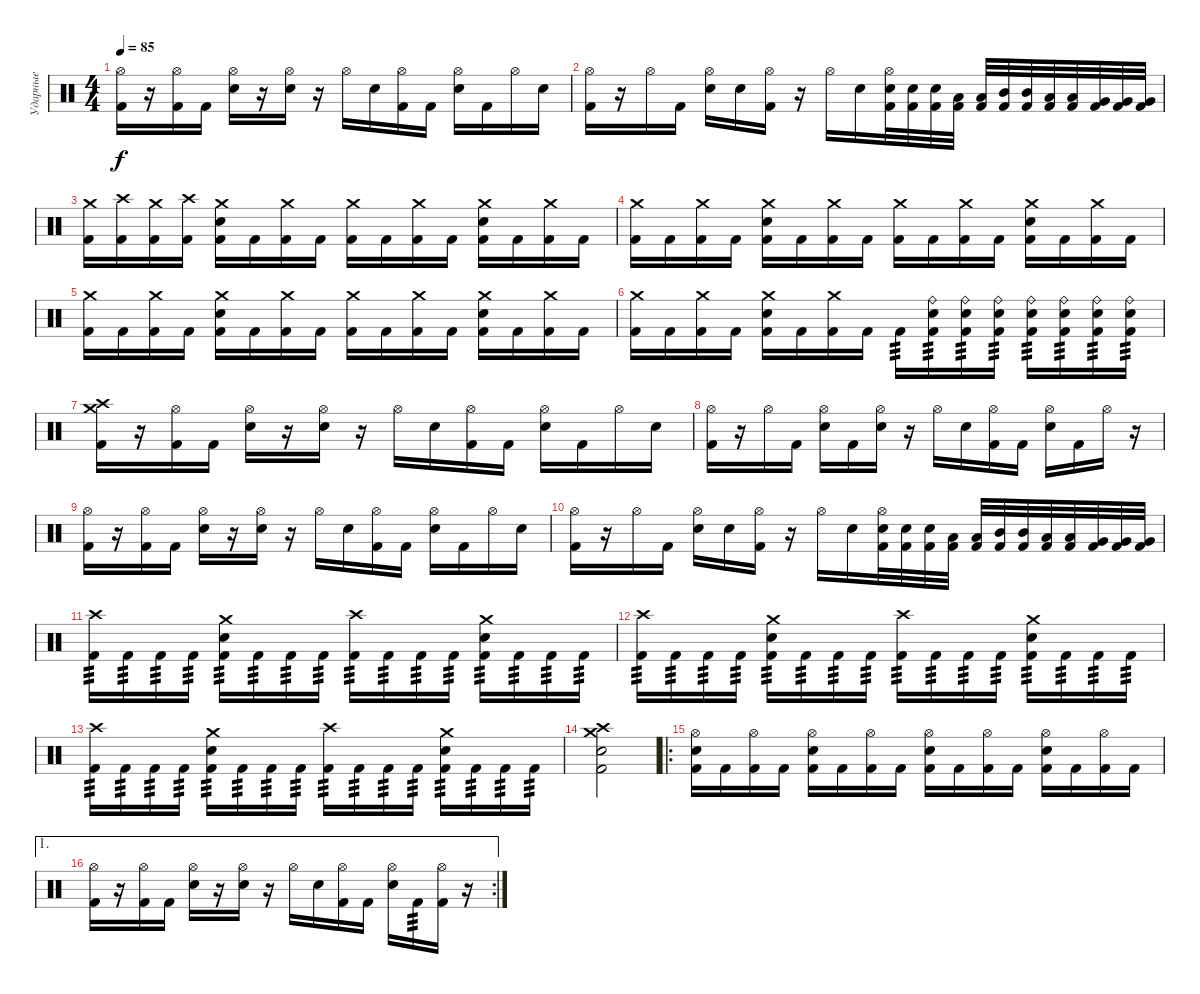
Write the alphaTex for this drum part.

\track ("Ударные" "Ударные") {instrument percussion}
\staff {score}
\articulation defaults
\ts (4 4)
\tempo 85
\clef neutral
\ks c
("Hi-Hat (open)" "Kick (hit) 2").16{dy f} r.16 ("Hi-Hat (open)" "Kick (hit) 2").16 "Kick (hit) 2".16 ("Hi-Hat (open)" "Electric Snare (hit)").16 r.16 ("Hi-Hat (open)" "Electric Snare (hit)").16 r.16 "Hi-Hat (open)".16 "Electric Snare (hit)".16 ("Hi-Hat (open)" "Kick (hit) 2").16 "Kick (hit) 2".16 ("Hi-Hat (open)" "Electric Snare (hit)").16 "Kick (hit) 2".16 "Hi-Hat (open)".16 "Electric Snare (hit)".16 |
("Hi-Hat (open)" "Kick (hit) 2").16 r.16 "Hi-Hat (open)".16 "Kick (hit) 2".16 ("Hi-Hat (open)" "Electric Snare (hit)").16 "Electric Snare (hit)".16 ("Hi-Hat (open)" "Kick (hit) 2").16 r.16 "Hi-Hat (open)".16 "Electric Snare (hit)".16 ("Hi-Hat (open)" "Electric Snare (hit)" "Kick (hit) 2").32 ("Electric Snare (hit)" "Kick (hit) 2").32 ("Electric Snare (hit)" "Kick (hit) 2").32 ("Low Tom (hit)" "Kick (hit) 2").32 ("Low Tom (hit)" "Kick (hit) 2").32 ("Mid Tom (hit)" "Kick (hit) 2").32 ("Mid Tom (hit)" "Kick (hit) 2").32 ("Low Tom (hit)" "Kick (hit) 2").32 ("Low Tom (hit)" "Kick (hit) 2").32 ("Very Low Tom (hit)" "Kick (hit) 2").32 ("Very Low Tom (hit)" "Kick (hit) 2").32 ("Very Low Tom (hit)" "Kick (hit) 2").32 |
("Crash medium (hit)" "Kick (hit) 2").16 ("Crash high (hit)" "Kick (hit) 2").16 ("Crash medium (hit)" "Kick (hit) 2").16 ("Crash high (hit)" "Kick (hit) 2").16 ("Crash medium (hit)" "Electric Snare (hit)" "Kick (hit) 2").16 "Kick (hit) 2".16 ("Crash medium (hit)" "Kick (hit) 2").16 "Kick (hit) 2".16 ("Crash medium (hit)" "Kick (hit) 2").16 "Kick (hit) 2".16 ("Crash medium (hit)" "Kick (hit) 2").16 "Kick (hit) 2".16 ("Crash medium (hit)" "Electric Snare (hit)" "Kick (hit) 2").16 "Kick (hit) 2".16 ("Crash medium (hit)" "Kick (hit) 2").16 "Kick (hit) 2".16 |
("Crash medium (hit)" "Kick (hit) 2").16 "Kick (hit) 2".16 ("Crash medium (hit)" "Kick (hit) 2").16 "Kick (hit) 2".16 ("Crash medium (hit)" "Electric Snare (hit)" "Kick (hit) 2").16 "Kick (hit) 2".16 ("Crash medium (hit)" "Kick (hit) 2").16 "Kick (hit) 2".16 ("Crash medium (hit)" "Kick (hit) 2").16 "Kick (hit) 2".16 ("Crash medium (hit)" "Kick (hit) 2").16 "Kick (hit) 2".16 ("Crash medium (hit)" "Electric Snare (hit)" "Kick (hit) 2").16 "Kick (hit) 2".16 ("Crash medium (hit)" "Kick (hit) 2").16 "Kick (hit) 2".16 |
("Crash medium (hit)" "Kick (hit) 2").16 "Kick (hit) 2".16 ("Crash medium (hit)" "Kick (hit) 2").16 "Kick (hit) 2".16 ("Crash medium (hit)" "Electric Snare (hit)" "Kick (hit) 2").16 "Kick (hit) 2".16 ("Crash medium (hit)" "Kick (hit) 2").16 "Kick (hit) 2".16 ("Crash medium (hit)" "Kick (hit) 2").16 "Kick (hit) 2".16 ("Crash medium (hit)" "Kick (hit) 2").16 "Kick (hit) 2".16 ("Crash medium (hit)" "Electric Snare (hit)" "Kick (hit) 2").16 "Kick (hit) 2".16 ("Crash medium (hit)" "Kick (hit) 2").16 "Kick (hit) 2".16 |
("Crash medium (hit)" "Kick (hit) 2").16 "Kick (hit) 2".16 ("Crash medium (hit)" "Kick (hit) 2").16 "Kick (hit) 2".16 ("Crash medium (hit)" "Electric Snare (hit)" "Kick (hit) 2").16 "Kick (hit) 2".16 ("Crash medium (hit)" "Kick (hit) 2").16 "Kick (hit) 2".16 "Kick (hit) 2".16{tp 3} ("Ride (bell)" "Electric Snare (hit)" "Kick (hit) 2").16{tp 3} ("Ride (bell)" "Electric Snare (hit)" "Kick (hit) 2").16{tp 3} ("Ride (bell)" "Electric Snare (hit)" "Kick (hit) 2").16{tp 3} ("Ride (bell)" "Electric Snare (hit)" "Kick (hit) 2").16{tp 3} ("Ride (bell)" "Electric Snare (hit)" "Kick (hit) 2").16{tp 3} ("Ride (bell)" "Electric Snare (hit)" "Kick (hit) 2").16{tp 3} ("Ride (bell)" "Electric Snare (hit)" "Kick (hit) 2").16{tp 3} |
("Crash medium (hit)" "Crash high (hit)" "Kick (hit) 2").16 r.16 ("Hi-Hat (open)" "Kick (hit) 2").16 "Kick (hit) 2".16 ("Hi-Hat (open)" "Electric Snare (hit)").16 r.16 ("Hi-Hat (open)" "Electric Snare (hit)").16 r.16 "Hi-Hat (open)".16 "Electric Snare (hit)".16 ("Hi-Hat (open)" "Kick (hit) 2").16 "Kick (hit) 2".16 ("Hi-Hat (open)" "Electric Snare (hit)").16 "Kick (hit) 2".16 "Hi-Hat (open)".16 "Electric Snare (hit)".16 |
("Hi-Hat (open)" "Kick (hit) 2").16 r.16 "Hi-Hat (open)".16 "Kick (hit) 2".16 ("Hi-Hat (open)" "Electric Snare (hit)").16 "Kick (hit) 2".16 ("Hi-Hat (open)" "Electric Snare (hit)").16 r.16 "Hi-Hat (open)".16 "Electric Snare (hit)".16 ("Hi-Hat (open)" "Kick (hit) 2").16 "Kick (hit) 2".16 ("Hi-Hat (open)" "Electric Snare (hit)").16 "Kick (hit) 2".16 "Hi-Hat (open)".16 r.16 |
("Hi-Hat (open)" "Kick (hit) 2").16 r.16 ("Hi-Hat (open)" "Kick (hit) 2").16 "Kick (hit) 2".16 ("Hi-Hat (open)" "Electric Snare (hit)").16 r.16 ("Hi-Hat (open)" "Electric Snare (hit)").16 r.16 "Hi-Hat (open)".16 "Electric Snare (hit)".16 ("Hi-Hat (open)" "Kick (hit) 2").16 "Kick (hit) 2".16 ("Hi-Hat (open)" "Electric Snare (hit)").16 "Kick (hit) 2".16 "Hi-Hat (open)".16 "Electric Snare (hit)".16 |
("Hi-Hat (open)" "Kick (hit) 2").16 r.16 "Hi-Hat (open)".16 "Kick (hit) 2".16 ("Hi-Hat (open)" "Electric Snare (hit)").16 "Electric Snare (hit)".16 ("Hi-Hat (open)" "Kick (hit) 2").16 r.16 "Hi-Hat (open)".16 "Electric Snare (hit)".16 ("Hi-Hat (open)" "Electric Snare (hit)" "Kick (hit) 2").32 ("Electric Snare (hit)" "Kick (hit) 2").32 ("Electric Snare (hit)" "Kick (hit) 2").32 ("Low Tom (hit)" "Kick (hit) 2").32 ("Low Tom (hit)" "Kick (hit) 2").32 ("Mid Tom (hit)" "Kick (hit) 2").32 ("Mid Tom (hit)" "Kick (hit) 2").32 ("Low Tom (hit)" "Kick (hit) 2").32 ("Low Tom (hit)" "Kick (hit) 2").32 ("Very Low Tom (hit)" "Kick (hit) 2").32 ("Very Low Tom (hit)" "Kick (hit) 2").32 ("Very Low Tom (hit)" "Kick (hit) 2").32 |
("Crash high (hit)" "Kick (hit) 2").16{tp 3} "Kick (hit) 2".16{tp 3} "Kick (hit) 2".16{tp 3} "Kick (hit) 2".16{tp 3} ("Crash medium (hit)" "Electric Snare (hit)" "Kick (hit) 2").16{tp 3} "Kick (hit) 2".16{tp 3} "Kick (hit) 2".16{tp 3} "Kick (hit) 2".16{tp 3} ("Crash high (hit)" "Kick (hit) 2").16{tp 3} "Kick (hit) 2".16{tp 3} "Kick (hit) 2".16{tp 3} "Kick (hit) 2".16{tp 3} ("Crash medium (hit)" "Electric Snare (hit)" "Kick (hit) 2").16{tp 3} "Kick (hit) 2".16{tp 3} "Kick (hit) 2".16{tp 3} "Kick (hit) 2".16{tp 3} |
("Crash high (hit)" "Kick (hit) 2").16{tp 3} "Kick (hit) 2".16{tp 3} "Kick (hit) 2".16{tp 3} "Kick (hit) 2".16{tp 3} ("Crash medium (hit)" "Electric Snare (hit)" "Kick (hit) 2").16{tp 3} "Kick (hit) 2".16{tp 3} "Kick (hit) 2".16{tp 3} "Kick (hit) 2".16{tp 3} ("Crash high (hit)" "Kick (hit) 2").16{tp 3} "Kick (hit) 2".16{tp 3} "Kick (hit) 2".16{tp 3} "Kick (hit) 2".16{tp 3} ("Crash medium (hit)" "Electric Snare (hit)" "Kick (hit) 2").16{tp 3} "Kick (hit) 2".16{tp 3} "Kick (hit) 2".16{tp 3} "Kick (hit) 2".16{tp 3} |
("Crash high (hit)" "Kick (hit) 2").16{tp 3} "Kick (hit) 2".16{tp 3} "Kick (hit) 2".16{tp 3} "Kick (hit) 2".16{tp 3} ("Crash medium (hit)" "Electric Snare (hit)" "Kick (hit) 2").16{tp 3} "Kick (hit) 2".16{tp 3} "Kick (hit) 2".16{tp 3} "Kick (hit) 2".16{tp 3} ("Crash high (hit)" "Kick (hit) 2").16{tp 3} "Kick (hit) 2".16{tp 3} "Kick (hit) 2".16{tp 3} "Kick (hit) 2".16{tp 3} ("Crash medium (hit)" "Electric Snare (hit)" "Kick (hit) 2").16{tp 3} "Kick (hit) 2".16{tp 3} "Kick (hit) 2".16{tp 3} "Kick (hit) 2".16{tp 3} |
("Crash medium (hit)" "Crash high (hit)" "Electric Snare (hit)" "Kick (hit) 2").2 |
\ro
("Hi-Hat (open)" "Electric Snare (hit)" "Kick (hit) 2").16 "Kick (hit) 2".16 ("Hi-Hat (open)" "Kick (hit) 2").16 "Kick (hit) 2".16 ("Hi-Hat (open)" "Electric Snare (hit)" "Kick (hit) 2").16 "Kick (hit) 2".16 ("Hi-Hat (open)" "Kick (hit) 2").16 "Kick (hit) 2".16 ("Hi-Hat (open)" "Electric Snare (hit)" "Kick (hit) 2").16 "Kick (hit) 2".16 ("Hi-Hat (open)" "Kick (hit) 2").16 "Kick (hit) 2".16 ("Hi-Hat (open)" "Electric Snare (hit)" "Kick (hit) 2").16 "Kick (hit) 2".16 ("Hi-Hat (open)" "Kick (hit) 2").16 "Kick (hit) 2".16 |
\ae 1
\rc 2
("Hi-Hat (open)" "Kick (hit) 2").16 r.16 ("Hi-Hat (open)" "Kick (hit) 2").16 "Kick (hit) 2".16 ("Hi-Hat (open)" "Electric Snare (hit)").16 r.16 ("Hi-Hat (open)" "Electric Snare (hit)").16 r.16 "Hi-Hat (open)".16 "Electric Snare (hit)".16 ("Hi-Hat (open)" "Kick (hit) 2").16 "Kick (hit) 2".16 ("Hi-Hat (open)" "Electric Snare (hit)").16 "Kick (hit) 2".16{tp 3} ("Hi-Hat (open)" "Kick (hit) 2").16 r.16
